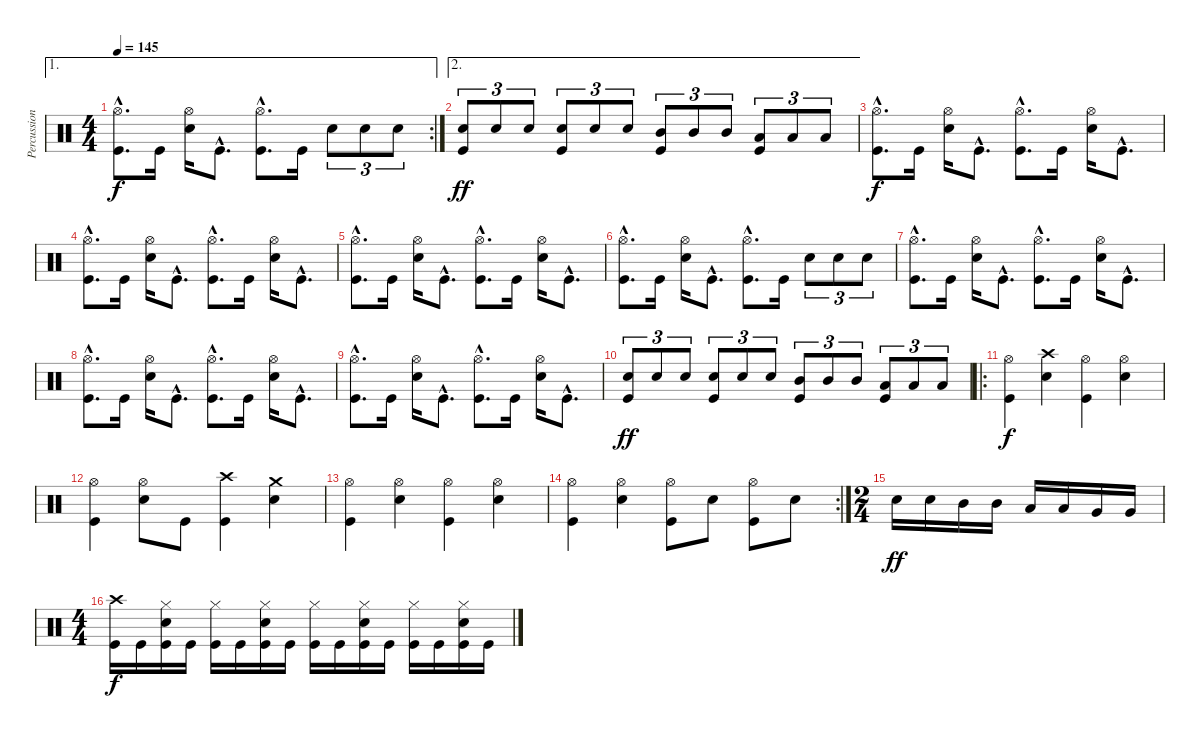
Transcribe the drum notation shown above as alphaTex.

\track ("Percussions" "Percussion") {instrument percussion}
\staff {score}
\articulation defaults
\ae 1
\rc 2
\ts (4 4)
\tempo 145
\clef neutral
\ks c
("Hi-Hat (open)"{hac} "Kick (hit)"{hac}).8{d dy f} "Kick (hit)".16 ("Hi-Hat (open)" "Snare (hit) 2").16 "Kick (hit)"{hac}.8{d} ("Hi-Hat (open)"{hac} "Kick (hit)"{hac}).8{d} "Kick (hit)".16 "Snare (hit) 2".8{tu (3 2)} "Snare (hit) 2".8{tu (3 2)} "Snare (hit) 2".8{tu (3 2)} |
\ae 2
("Snare (hit) 2" "Kick (hit)").8{tu (3 2) dy ff} "Snare (hit) 2".8{tu (3 2)} "Snare (hit) 2".8{tu (3 2)} ("Snare (hit) 2" "Kick (hit)").8{tu (3 2)} "Snare (hit) 2".8{tu (3 2)} "Snare (hit) 2".8{tu (3 2)} ("Mid Tom (hit)" "Kick (hit)").8{tu (3 2)} "Mid Tom (hit)".8{tu (3 2)} "Mid Tom (hit)".8{tu (3 2)} ("Low Tom (hit)" "Kick (hit)").8{tu (3 2)} "Low Tom (hit)".8{tu (3 2)} "Low Tom (hit)".8{tu (3 2)} |
("Hi-Hat (open)"{hac} "Kick (hit)"{hac}).8{d dy f} "Kick (hit)".16 ("Hi-Hat (open)" "Snare (hit) 2").16 "Kick (hit)"{hac}.8{d} ("Hi-Hat (open)"{hac} "Kick (hit)"{hac}).8{d} "Kick (hit)".16 ("Hi-Hat (open)" "Snare (hit) 2").16 "Kick (hit)"{hac}.8{d} |
("Hi-Hat (open)"{hac} "Kick (hit)"{hac}).8{d} "Kick (hit)".16 ("Hi-Hat (open)" "Snare (hit) 2").16 "Kick (hit)"{hac}.8{d} ("Hi-Hat (open)"{hac} "Kick (hit)"{hac}).8{d} "Kick (hit)".16 ("Hi-Hat (open)" "Snare (hit) 2").16 "Kick (hit)"{hac}.8{d} |
("Hi-Hat (open)"{hac} "Kick (hit)"{hac}).8{d} "Kick (hit)".16 ("Hi-Hat (open)" "Snare (hit) 2").16 "Kick (hit)"{hac}.8{d} ("Hi-Hat (open)"{hac} "Kick (hit)"{hac}).8{d} "Kick (hit)".16 ("Hi-Hat (open)" "Snare (hit) 2").16 "Kick (hit)"{hac}.8{d} |
("Hi-Hat (open)"{hac} "Kick (hit)"{hac}).8{d} "Kick (hit)".16 ("Hi-Hat (open)" "Snare (hit) 2").16 "Kick (hit)"{hac}.8{d} ("Hi-Hat (open)"{hac} "Kick (hit)"{hac}).8{d} "Kick (hit)".16 "Snare (hit) 2".8{tu (3 2)} "Snare (hit) 2".8{tu (3 2)} "Snare (hit) 2".8{tu (3 2)} |
("Hi-Hat (open)"{hac} "Kick (hit)"{hac}).8{d} "Kick (hit)".16 ("Hi-Hat (open)" "Snare (hit) 2").16 "Kick (hit)"{hac}.8{d} ("Hi-Hat (open)"{hac} "Kick (hit)"{hac}).8{d} "Kick (hit)".16 ("Hi-Hat (open)" "Snare (hit) 2").16 "Kick (hit)"{hac}.8{d} |
("Hi-Hat (open)"{hac} "Kick (hit)"{hac}).8{d} "Kick (hit)".16 ("Hi-Hat (open)" "Snare (hit) 2").16 "Kick (hit)"{hac}.8{d} ("Hi-Hat (open)"{hac} "Kick (hit)"{hac}).8{d} "Kick (hit)".16 ("Hi-Hat (open)" "Snare (hit) 2").16 "Kick (hit)"{hac}.8{d} |
("Hi-Hat (open)"{hac} "Kick (hit)"{hac}).8{d} "Kick (hit)".16 ("Hi-Hat (open)" "Snare (hit) 2").16 "Kick (hit)"{hac}.8{d} ("Hi-Hat (open)"{hac} "Kick (hit)"{hac}).8{d} "Kick (hit)".16 ("Hi-Hat (open)" "Snare (hit) 2").16 "Kick (hit)"{hac}.8{d} |
("Snare (hit) 2" "Kick (hit)").8{tu (3 2) dy ff} "Snare (hit) 2".8{tu (3 2)} "Snare (hit) 2".8{tu (3 2)} ("Snare (hit) 2" "Kick (hit)").8{tu (3 2)} "Snare (hit) 2".8{tu (3 2)} "Snare (hit) 2".8{tu (3 2)} ("Mid Tom (hit)" "Kick (hit)").8{tu (3 2)} "Mid Tom (hit)".8{tu (3 2)} "Mid Tom (hit)".8{tu (3 2)} ("Low Tom (hit)" "Kick (hit)").8{tu (3 2)} "Low Tom (hit)".8{tu (3 2)} "Low Tom (hit)".8{tu (3 2)} |
\ro
("Hi-Hat (open)" "Kick (hit)").4{dy f} ("Crash high (hit)" "Snare (hit) 2").4 ("Hi-Hat (open)" "Kick (hit)").4 ("Hi-Hat (open)" "Snare (hit) 2").4 |
("Hi-Hat (open)" "Kick (hit)").4 ("Hi-Hat (open)" "Snare (hit) 2").8 "Kick (hit)".8 ("Crash high (hit)" "Kick (hit)").4 ("Crash medium (hit)" "Snare (hit) 2").4 |
("Hi-Hat (open)" "Kick (hit)").4 ("Hi-Hat (open)" "Snare (hit) 2").4 ("Hi-Hat (open)" "Kick (hit)").4 ("Hi-Hat (open)" "Snare (hit) 2").4 |
\rc 2
("Hi-Hat (open)" "Kick (hit)").4 ("Hi-Hat (open)" "Snare (hit) 2").4 ("Hi-Hat (open)" "Kick (hit)").8 "Snare (hit) 2".8 ("Hi-Hat (open)" "Kick (hit)").8 "Snare (hit) 2".8 |
\ts (2 4)
"Snare (hit) 2".16{dy ff} "Snare (hit) 2".16 "Mid Tom (hit)".16 "Mid Tom (hit)".16 "Low Tom (hit)".16 "Low Tom (hit)".16 "Very Low Tom (hit)".16 "Very Low Tom (hit)".16 |
\ts (4 4)
("Crash high (hit)" "Kick (hit)").16{dy f} "Kick (hit)".16 ("Hi-Hat (closed)" "Snare (hit) 2" "Kick (hit)").16 "Kick (hit)".16 ("Hi-Hat (closed)" "Kick (hit)").16 "Kick (hit)".16 ("Hi-Hat (closed)" "Snare (hit) 2" "Kick (hit)").16 "Kick (hit)".16 ("Hi-Hat (closed)" "Kick (hit)").16 "Kick (hit)".16 ("Hi-Hat (closed)" "Snare (hit) 2" "Kick (hit)").16 "Kick (hit)".16 ("Hi-Hat (closed)" "Kick (hit)").16 "Kick (hit)".16 ("Hi-Hat (closed)" "Snare (hit) 2" "Kick (hit)").16 "Kick (hit)".16
